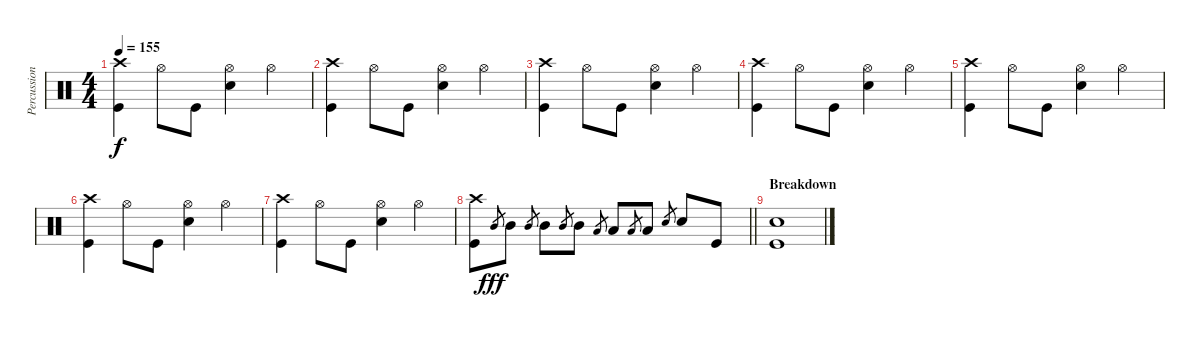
\track ("Percussion" "Percussion") {instrument percussion}
\staff {score}
\articulation defaults
\ts (4 4)
\tempo 155
\clef neutral
\ks c
("Crash high (hit)" "Kick (hit)").4{dy f} "Hi-Hat (open)".8 "Kick (hit)".8 ("Hi-Hat (open)" "Electric Snare (hit)").4 "Hi-Hat (open)".4 |
("Crash high (hit)" "Kick (hit)").4 "Hi-Hat (open)".8 "Kick (hit)".8 ("Hi-Hat (open)" "Electric Snare (hit)").4 "Hi-Hat (open)".4 |
("Crash high (hit)" "Kick (hit)").4 "Hi-Hat (open)".8 "Kick (hit)".8 ("Hi-Hat (open)" "Electric Snare (hit)").4 "Hi-Hat (open)".4 |
("Crash high (hit)" "Kick (hit)").4 "Hi-Hat (open)".8 "Kick (hit)".8 ("Hi-Hat (open)" "Electric Snare (hit)").4 "Hi-Hat (open)".4 |
("Crash high (hit)" "Kick (hit)").4 "Hi-Hat (open)".8 "Kick (hit)".8 ("Hi-Hat (open)" "Electric Snare (hit)").4 "Hi-Hat (open)".4 |
("Crash high (hit)" "Kick (hit)").4 "Hi-Hat (open)".8 "Kick (hit)".8 ("Hi-Hat (open)" "Electric Snare (hit)").4 "Hi-Hat (open)".4 |
("Crash high (hit)" "Kick (hit)").4 "Hi-Hat (open)".8 "Kick (hit)".8 ("Hi-Hat (open)" "Electric Snare (hit)").4 "Hi-Hat (open)".4 |
\barLineRight lightlight
("Crash high (hit)" "Kick (hit)").8 "Mid Tom (hit)".8{gr dy fff} "Mid Tom (hit)".8 "Mid Tom (hit)".8{gr} "Mid Tom (hit)".8 "Mid Tom (hit)".8{gr} "Mid Tom (hit)".8 "Low Tom (hit)".8{gr} "Low Tom (hit)".8 "Low Tom (hit)".8{gr} "Low Tom (hit)".8 "Electric Snare (hit)".8{gr} "Electric Snare (hit)".8 "Kick (hit)".8 |
\section ("" "Breakdown")
("Electric Snare (hit)" "Kick (hit)").1
